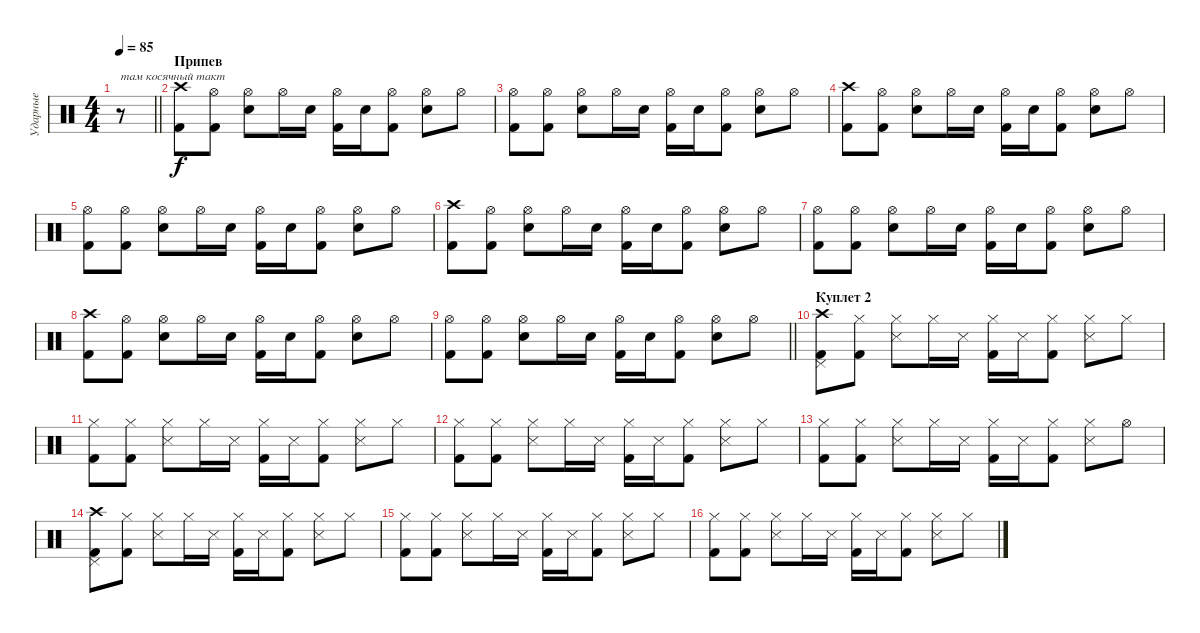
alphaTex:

\track ("Ударные" "Ударные") {instrument percussion}
\staff {score}
\articulation defaults
\ts (4 4)
\tempo 85
\clef neutral
\barLineRight lightlight
\ks c
r.8{txt "там косячный такт" dy f} |
\section ("" "Припев")
("Crash high (hit)" "Kick (hit) 2").8 ("Hi-Hat (open)" "Kick (hit) 2").8 ("Hi-Hat (open)" "Electric Snare (hit)").8 "Hi-Hat (open)".16 "Electric Snare (hit)".16 ("Hi-Hat (open)" "Kick (hit) 2").16 "Electric Snare (hit)".16 ("Hi-Hat (open)" "Kick (hit) 2").8 ("Hi-Hat (open)" "Electric Snare (hit)").8 "Hi-Hat (open)".8 |
("Hi-Hat (open)" "Kick (hit) 2").8 ("Hi-Hat (open)" "Kick (hit) 2").8 ("Hi-Hat (open)" "Electric Snare (hit)").8 "Hi-Hat (open)".16 "Electric Snare (hit)".16 ("Hi-Hat (open)" "Kick (hit) 2").16 "Electric Snare (hit)".16 ("Hi-Hat (open)" "Kick (hit) 2").8 ("Hi-Hat (open)" "Electric Snare (hit)").8 "Hi-Hat (open)".8 |
("Crash high (hit)" "Kick (hit) 2").8 ("Hi-Hat (open)" "Kick (hit) 2").8 ("Hi-Hat (open)" "Electric Snare (hit)").8 "Hi-Hat (open)".16 "Electric Snare (hit)".16 ("Hi-Hat (open)" "Kick (hit) 2").16 "Electric Snare (hit)".16 ("Hi-Hat (open)" "Kick (hit) 2").8 ("Hi-Hat (open)" "Electric Snare (hit)").8 "Hi-Hat (open)".8 |
("Hi-Hat (open)" "Kick (hit) 2").8 ("Hi-Hat (open)" "Kick (hit) 2").8 ("Hi-Hat (open)" "Electric Snare (hit)").8 "Hi-Hat (open)".16 "Electric Snare (hit)".16 ("Hi-Hat (open)" "Kick (hit) 2").16 "Electric Snare (hit)".16 ("Hi-Hat (open)" "Kick (hit) 2").8 ("Hi-Hat (open)" "Electric Snare (hit)").8 "Hi-Hat (open)".8 |
("Crash high (hit)" "Kick (hit) 2").8 ("Hi-Hat (open)" "Kick (hit) 2").8 ("Hi-Hat (open)" "Electric Snare (hit)").8 "Hi-Hat (open)".16 "Electric Snare (hit)".16 ("Hi-Hat (open)" "Kick (hit) 2").16 "Electric Snare (hit)".16 ("Hi-Hat (open)" "Kick (hit) 2").8 ("Hi-Hat (open)" "Electric Snare (hit)").8 "Hi-Hat (open)".8 |
("Hi-Hat (open)" "Kick (hit) 2").8 ("Hi-Hat (open)" "Kick (hit) 2").8 ("Hi-Hat (open)" "Electric Snare (hit)").8 "Hi-Hat (open)".16 "Electric Snare (hit)".16 ("Hi-Hat (open)" "Kick (hit) 2").16 "Electric Snare (hit)".16 ("Hi-Hat (open)" "Kick (hit) 2").8 ("Hi-Hat (open)" "Electric Snare (hit)").8 "Hi-Hat (open)".8 |
("Crash high (hit)" "Kick (hit) 2").8 ("Hi-Hat (open)" "Kick (hit) 2").8 ("Hi-Hat (open)" "Electric Snare (hit)").8 "Hi-Hat (open)".16 "Electric Snare (hit)".16 ("Hi-Hat (open)" "Kick (hit) 2").16 "Electric Snare (hit)".16 ("Hi-Hat (open)" "Kick (hit) 2").8 ("Hi-Hat (open)" "Electric Snare (hit)").8 "Hi-Hat (open)".8 |
\barLineRight lightlight
("Hi-Hat (open)" "Kick (hit) 2").8 ("Hi-Hat (open)" "Kick (hit) 2").8 ("Hi-Hat (open)" "Electric Snare (hit)").8 "Hi-Hat (open)".16 "Electric Snare (hit)".16 ("Hi-Hat (open)" "Kick (hit) 2").16 "Electric Snare (hit)".16 ("Hi-Hat (open)" "Kick (hit) 2").8 ("Hi-Hat (open)" "Electric Snare (hit)").8 "Hi-Hat (open)".8 |
\section ("" "Куплет 2")
("Crash high (hit)" "Pedal Hi-Hat (hit)" "Kick (hit) 2").8 ("Hi-Hat (closed)" "Kick (hit) 2").8 ("Hi-Hat (closed)" "Snare (side stick) 3").8 "Hi-Hat (closed)".16 "Snare (side stick) 3".16 ("Hi-Hat (closed)" "Kick (hit) 2").16 "Snare (side stick) 3".16 ("Hi-Hat (closed)" "Kick (hit) 2").8 ("Hi-Hat (closed)" "Snare (side stick) 3").8 "Hi-Hat (closed)".8 |
("Hi-Hat (closed)" "Kick (hit) 2").8 ("Hi-Hat (closed)" "Kick (hit) 2").8 ("Hi-Hat (closed)" "Snare (side stick) 3").8 "Hi-Hat (closed)".16 "Snare (side stick) 3".16 ("Hi-Hat (closed)" "Kick (hit) 2").16 "Snare (side stick) 3".16 ("Hi-Hat (closed)" "Kick (hit) 2").8 ("Hi-Hat (closed)" "Snare (side stick) 3").8 "Hi-Hat (closed)".8 |
("Hi-Hat (closed)" "Kick (hit) 2").8 ("Hi-Hat (closed)" "Kick (hit) 2").8 ("Hi-Hat (closed)" "Snare (side stick) 3").8 "Hi-Hat (closed)".16 "Snare (side stick) 3".16 ("Hi-Hat (closed)" "Kick (hit) 2").16 "Snare (side stick) 3".16 ("Hi-Hat (closed)" "Kick (hit) 2").8 ("Hi-Hat (closed)" "Snare (side stick) 3").8 "Hi-Hat (closed)".8 |
("Hi-Hat (closed)" "Kick (hit) 2").8 ("Hi-Hat (closed)" "Kick (hit) 2").8 ("Hi-Hat (closed)" "Snare (side stick) 3").8 "Hi-Hat (closed)".16 "Snare (side stick) 3".16 ("Hi-Hat (closed)" "Kick (hit) 2").16 "Snare (side stick) 3".16 ("Hi-Hat (closed)" "Kick (hit) 2").8 ("Hi-Hat (closed)" "Snare (side stick) 3").8 "Hi-Hat (open)".8 |
("Crash high (hit)" "Pedal Hi-Hat (hit)" "Kick (hit) 2").8 ("Hi-Hat (closed)" "Kick (hit) 2").8 ("Hi-Hat (closed)" "Snare (side stick) 3").8 "Hi-Hat (closed)".16 "Snare (side stick) 3".16 ("Hi-Hat (closed)" "Kick (hit) 2").16 "Snare (side stick) 3".16 ("Hi-Hat (closed)" "Kick (hit) 2").8 ("Hi-Hat (closed)" "Snare (side stick) 3").8 "Hi-Hat (closed)".8 |
("Hi-Hat (closed)" "Kick (hit) 2").8 ("Hi-Hat (closed)" "Kick (hit) 2").8 ("Hi-Hat (closed)" "Snare (side stick) 3").8 "Hi-Hat (closed)".16 "Snare (side stick) 3".16 ("Hi-Hat (closed)" "Kick (hit) 2").16 "Snare (side stick) 3".16 ("Hi-Hat (closed)" "Kick (hit) 2").8 ("Hi-Hat (closed)" "Snare (side stick) 3").8 "Hi-Hat (closed)".8 |
("Hi-Hat (closed)" "Kick (hit) 2").8 ("Hi-Hat (closed)" "Kick (hit) 2").8 ("Hi-Hat (closed)" "Snare (side stick) 3").8 "Hi-Hat (closed)".16 "Snare (side stick) 3".16 ("Hi-Hat (closed)" "Kick (hit) 2").16 "Snare (side stick) 3".16 ("Hi-Hat (closed)" "Kick (hit) 2").8 ("Hi-Hat (closed)" "Snare (side stick) 3").8 "Hi-Hat (closed)".8
